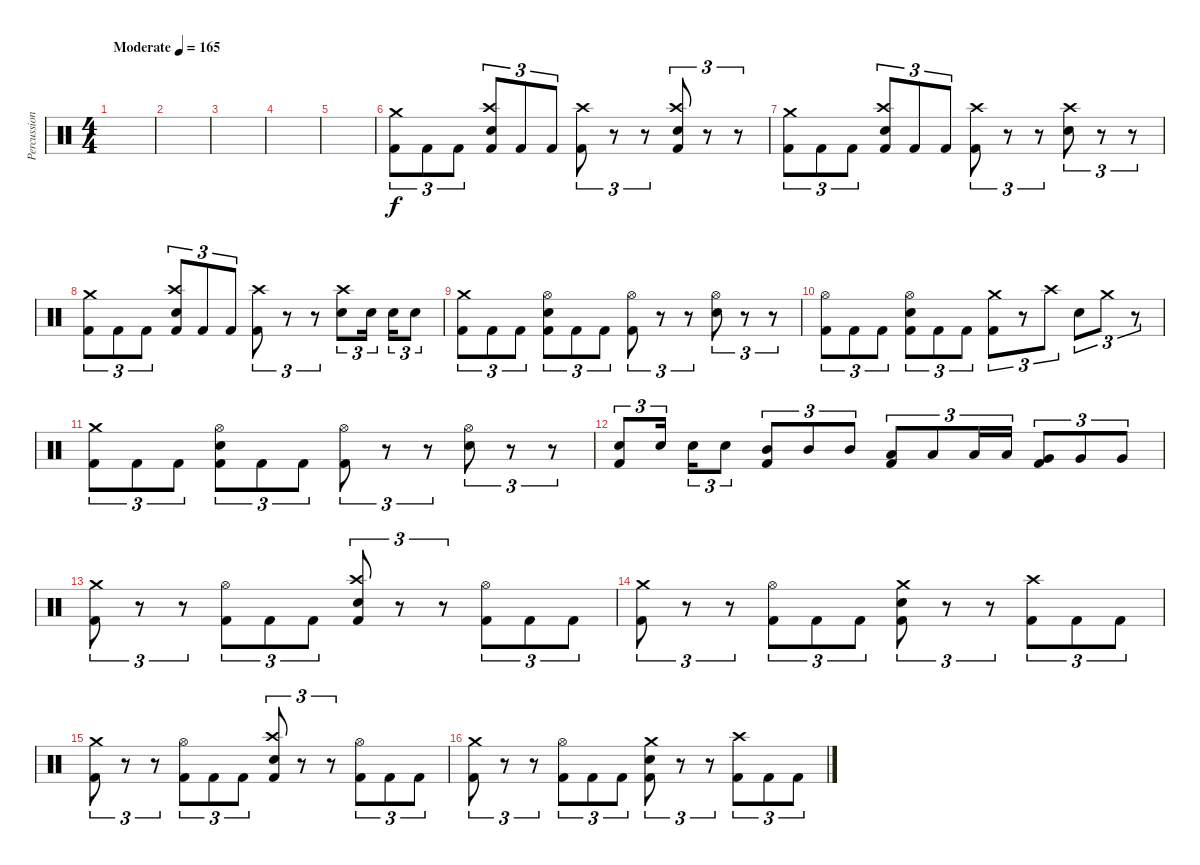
\track ("Percussion" "Percussion") {instrument percussion}
\staff {score}
\articulation defaults
\ts (4 4)
\tempo (165 "Moderate")
\clef neutral
\ks c
|
|
|
|
|
("Crash medium (hit)" "Kick (hit) 2").8{tu (3 2)} "Kick (hit) 2".8{tu (3 2)} "Kick (hit) 2".8{tu (3 2)} ("Crash high (hit)" "Snare (hit) 2" "Kick (hit) 2").8{tu (3 2)} "Kick (hit) 2".8{tu (3 2)} "Kick (hit) 2".8{tu (3 2)} ("Crash high (hit)" "Kick (hit) 2").8{tu (3 2)} r.8{tu (3 2)} r.8{tu (3 2)} ("Crash high (hit)" "Snare (hit) 2" "Kick (hit) 2").8{tu (3 2)} r.8{tu (3 2)} r.8{tu (3 2)} |
("Crash medium (hit)" "Kick (hit) 2").8{tu (3 2)} "Kick (hit) 2".8{tu (3 2)} "Kick (hit) 2".8{tu (3 2)} ("Crash high (hit)" "Snare (hit) 2" "Kick (hit) 2").8{tu (3 2)} "Kick (hit) 2".8{tu (3 2)} "Kick (hit) 2".8{tu (3 2)} ("Crash high (hit)" "Kick (hit) 2").8{tu (3 2)} r.8{tu (3 2)} r.8{tu (3 2)} ("Crash high (hit)" "Snare (hit) 2").8{tu (3 2)} r.8{tu (3 2)} r.8{tu (3 2)} |
("Crash medium (hit)" "Kick (hit) 2").8{tu (3 2)} "Kick (hit) 2".8{tu (3 2)} "Kick (hit) 2".8{tu (3 2)} ("Crash high (hit)" "Snare (hit) 2" "Kick (hit) 2").8{tu (3 2)} "Kick (hit) 2".8{tu (3 2)} "Kick (hit) 2".8{tu (3 2)} ("Crash high (hit)" "Kick (hit) 2").8{tu (3 2)} r.8{tu (3 2)} r.8{tu (3 2)} ("Crash high (hit)" "Snare (hit) 2").8{tu (3 2)} "Snare (hit) 2".16{tu (3 2) beam splitsecondary} "Snare (hit) 2".16{tu (3 2)} "Snare (hit) 2".8{tu (3 2)} |
("Crash medium (hit)" "Kick (hit) 2").8{tu (3 2)} "Kick (hit) 2".8{tu (3 2)} "Kick (hit) 2".8{tu (3 2)} ("Hi-Hat (open)" "Snare (hit) 2" "Kick (hit) 2").8{tu (3 2)} "Kick (hit) 2".8{tu (3 2)} "Kick (hit) 2".8{tu (3 2)} ("Hi-Hat (open)" "Kick (hit) 2").8{tu (3 2)} r.8{tu (3 2)} r.8{tu (3 2)} ("Hi-Hat (open)" "Snare (hit) 2").8{tu (3 2)} r.8{tu (3 2)} r.8{tu (3 2)} |
("Hi-Hat (open)" "Kick (hit) 2").8{tu (3 2)} "Kick (hit) 2".8{tu (3 2)} "Kick (hit) 2".8{tu (3 2)} ("Hi-Hat (open)" "Snare (hit) 2" "Kick (hit) 2").8{tu (3 2)} "Kick (hit) 2".8{tu (3 2)} "Kick (hit) 2".8{tu (3 2)} ("Crash medium (hit)" "Kick (hit) 2").8{tu (3 2)} r.8{tu (3 2)} "Crash high (hit)".8{tu (3 2)} "Snare (hit) 2".8{tu (3 2)} "Crash medium (hit)".8{tu (3 2)} r.8{tu (3 2)} |
("Crash medium (hit)" "Kick (hit) 2").8{tu (3 2)} "Kick (hit) 2".8{tu (3 2)} "Kick (hit) 2".8{tu (3 2)} ("Hi-Hat (open)" "Snare (hit) 2" "Kick (hit) 2").8{tu (3 2)} "Kick (hit) 2".8{tu (3 2)} "Kick (hit) 2".8{tu (3 2)} ("Hi-Hat (open)" "Kick (hit) 2").8{tu (3 2)} r.8{tu (3 2)} r.8{tu (3 2)} ("Hi-Hat (open)" "Snare (hit) 2").8{tu (3 2)} r.8{tu (3 2)} r.8{tu (3 2)} |
("Snare (hit) 2" "Kick (hit) 2").8{tu (3 2)} "Snare (hit) 2".16{tu (3 2) beam splitsecondary} "Snare (hit) 2".16{tu (3 2)} "Snare (hit) 2".8{tu (3 2)} ("Mid Tom (hit)" "Kick (hit) 2").8{tu (3 2)} "Mid Tom (hit)".8{tu (3 2)} "Mid Tom (hit)".8{tu (3 2)} ("Low Tom (hit)" "Kick (hit) 2").8{tu (3 2)} "Low Tom (hit)".8{tu (3 2)} "Low Tom (hit)".16{tu (3 2)} "Low Tom (hit)".16{tu (3 2)} ("Very Low Tom (hit)" "Kick (hit) 2").8{tu (3 2)} "Very Low Tom (hit)".8{tu (3 2)} "Very Low Tom (hit)".8{tu (3 2)} |
("Crash medium (hit)" "Kick (hit) 2").8{tu (3 2)} r.8{tu (3 2)} r.8{tu (3 2)} ("Hi-Hat (open)" "Kick (hit) 2").8{tu (3 2)} "Kick (hit) 2".8{tu (3 2)} "Kick (hit) 2".8{tu (3 2)} ("Crash high (hit)" "Snare (hit) 2" "Kick (hit) 2").8{tu (3 2)} r.8{tu (3 2)} r.8{tu (3 2)} ("Hi-Hat (open)" "Kick (hit) 2").8{tu (3 2)} "Kick (hit) 2".8{tu (3 2)} "Kick (hit) 2".8{tu (3 2)} |
("Crash medium (hit)" "Kick (hit) 2").8{tu (3 2)} r.8{tu (3 2)} r.8{tu (3 2)} ("Hi-Hat (open)" "Kick (hit) 2").8{tu (3 2)} "Kick (hit) 2".8{tu (3 2)} "Kick (hit) 2".8{tu (3 2)} ("Crash medium (hit)" "Snare (hit) 2" "Kick (hit) 2").8{tu (3 2)} r.8{tu (3 2)} r.8{tu (3 2)} ("Crash high (hit)" "Kick (hit) 2").8{tu (3 2)} "Kick (hit) 2".8{tu (3 2)} "Kick (hit) 2".8{tu (3 2)} |
("Crash medium (hit)" "Kick (hit) 2").8{tu (3 2)} r.8{tu (3 2)} r.8{tu (3 2)} ("Hi-Hat (open)" "Kick (hit) 2").8{tu (3 2)} "Kick (hit) 2".8{tu (3 2)} "Kick (hit) 2".8{tu (3 2)} ("Crash high (hit)" "Snare (hit) 2" "Kick (hit) 2").8{tu (3 2)} r.8{tu (3 2)} r.8{tu (3 2)} ("Hi-Hat (open)" "Kick (hit) 2").8{tu (3 2)} "Kick (hit) 2".8{tu (3 2)} "Kick (hit) 2".8{tu (3 2)} |
("Crash medium (hit)" "Kick (hit) 2").8{tu (3 2)} r.8{tu (3 2)} r.8{tu (3 2)} ("Hi-Hat (open)" "Kick (hit) 2").8{tu (3 2)} "Kick (hit) 2".8{tu (3 2)} "Kick (hit) 2".8{tu (3 2)} ("Crash medium (hit)" "Snare (hit) 2" "Kick (hit) 2").8{tu (3 2)} r.8{tu (3 2)} r.8{tu (3 2)} ("Crash high (hit)" "Kick (hit) 2").8{tu (3 2)} "Kick (hit) 2".8{tu (3 2)} "Kick (hit) 2".8{tu (3 2)}
